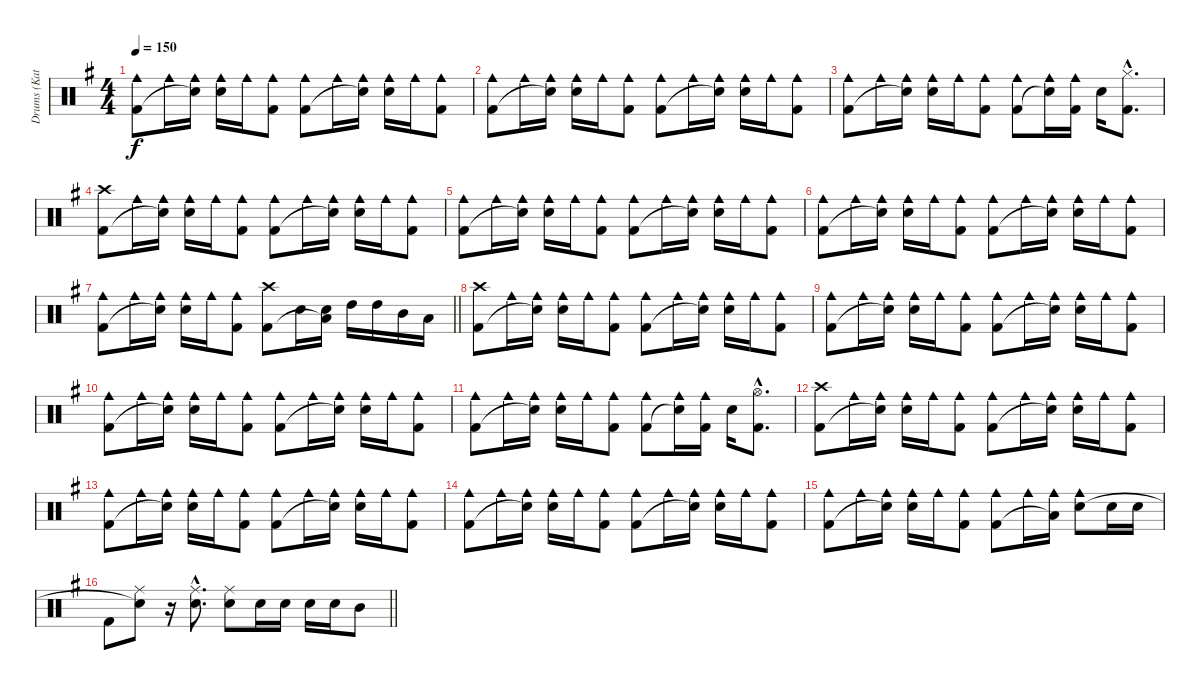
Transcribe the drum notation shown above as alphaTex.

\track ("Drums (Katsuji)" "Drums (Kat") {instrument percussion}
\staff {score}
\articulation defaults
\ts (4 4)
\tempo 150
\clef neutral
\ks g
("Cowbell medium (hit)" "Kick (hit) 2").8{dy f} "Cowbell medium (hit)".16 ("Cowbell medium (hit)" "Snare (hit)"{t}).16 ("Cowbell medium (hit)" "Snare (hit) 2").16 "Cowbell medium (hit)".16 ("Cowbell medium (hit)" "Kick (hit) 2").8 ("Cowbell medium (hit)" "Kick (hit) 2").8 "Cowbell medium (hit)".16 ("Cowbell medium (hit)" "Snare (hit)"{t}).16 ("Cowbell medium (hit)" "Snare (hit) 2").16 "Cowbell medium (hit)".16 ("Cowbell medium (hit)" "Kick (hit) 2").8 |
("Cowbell medium (hit)" "Kick (hit) 2").8 "Cowbell medium (hit)".16 ("Cowbell medium (hit)" "Snare (hit)"{t}).16 ("Cowbell medium (hit)" "Snare (hit) 2").16 "Cowbell medium (hit)".16 ("Cowbell medium (hit)" "Kick (hit) 2").8 ("Cowbell medium (hit)" "Kick (hit) 2").8 "Cowbell medium (hit)".16 ("Cowbell medium (hit)" "Snare (hit)"{t}).16 ("Cowbell medium (hit)" "Snare (hit) 2").16 "Cowbell medium (hit)".16 ("Cowbell medium (hit)" "Kick (hit) 2").8 |
("Cowbell medium (hit)" "Kick (hit) 2").8 "Cowbell medium (hit)".16 ("Cowbell medium (hit)" "Snare (hit)"{t}).16 ("Cowbell medium (hit)" "Snare (hit) 2").16 "Cowbell medium (hit)".16 ("Cowbell medium (hit)" "Kick (hit) 2").8 ("Cowbell medium (hit)" "Kick (hit) 2").8 ("Cowbell medium (hit)" "Snare (hit)"{t}).16 ("Cowbell medium (hit)" "Kick (hit) 2").16 "Snare (hit) 2".16 ("Hi-Hat (closed)"{hac} "Kick (hit) 2"{hac}).8{d} |
("Crash high (hit)" "Kick (hit) 2").8 "Cowbell medium (hit)".16 ("Cowbell medium (hit)" "Snare (hit)"{t}).16 ("Cowbell medium (hit)" "Snare (hit) 2").16 "Cowbell medium (hit)".16 ("Cowbell medium (hit)" "Kick (hit) 2").8 ("Cowbell medium (hit)" "Kick (hit) 2").8 "Cowbell medium (hit)".16 ("Cowbell medium (hit)" "Snare (hit)"{t}).16 ("Cowbell medium (hit)" "Snare (hit) 2").16 "Cowbell medium (hit)".16 ("Cowbell medium (hit)" "Kick (hit) 2").8 |
("Cowbell medium (hit)" "Kick (hit) 2").8 "Cowbell medium (hit)".16 ("Cowbell medium (hit)" "Snare (hit)"{t}).16 ("Cowbell medium (hit)" "Snare (hit) 2").16 "Cowbell medium (hit)".16 ("Cowbell medium (hit)" "Kick (hit) 2").8 ("Cowbell medium (hit)" "Kick (hit) 2").8 "Cowbell medium (hit)".16 ("Cowbell medium (hit)" "Snare (hit)"{t}).16 ("Cowbell medium (hit)" "Snare (hit) 2").16 "Cowbell medium (hit)".16 ("Cowbell medium (hit)" "Kick (hit) 2").8 |
("Cowbell medium (hit)" "Kick (hit) 2").8 "Cowbell medium (hit)".16 ("Cowbell medium (hit)" "Snare (hit)"{t}).16 ("Cowbell medium (hit)" "Snare (hit) 2").16 "Cowbell medium (hit)".16 ("Cowbell medium (hit)" "Kick (hit) 2").8 ("Cowbell medium (hit)" "Kick (hit) 2").8 "Cowbell medium (hit)".16 ("Cowbell medium (hit)" "Snare (hit)"{t}).16 ("Cowbell medium (hit)" "Snare (hit) 2").16 "Cowbell medium (hit)".16 ("Cowbell medium (hit)" "Kick (hit) 2").8 |
\barLineRight lightlight
("Cowbell medium (hit)" "Kick (hit) 2").8 "Cowbell medium (hit)".16 ("Cowbell medium (hit)" "Snare (hit)"{t}).16 ("Cowbell medium (hit)" "Snare (hit) 2").16 "Cowbell medium (hit)".16 ("Cowbell medium (hit)" "Kick (hit) 2").8 ("Crash high (hit)" "Kick (hit) 2").8 "Snare (hit) 2".16 ("Snare (hit) 2" "Low Floor Tom (hit)"{t}).16 "High Tom (hit)".16 "High Tom (hit)".16 "Mid Tom (hit)".16 "Low Tom (hit)".16 |
("Crash high (hit)" "Kick (hit) 2").8 "Cowbell medium (hit)".16 ("Cowbell medium (hit)" "Snare (hit)"{t}).16 ("Cowbell medium (hit)" "Snare (hit) 2").16 "Cowbell medium (hit)".16 ("Cowbell medium (hit)" "Kick (hit) 2").8 ("Cowbell medium (hit)" "Kick (hit) 2").8 "Cowbell medium (hit)".16 ("Cowbell medium (hit)" "Snare (hit)"{t}).16 ("Cowbell medium (hit)" "Snare (hit) 2").16 "Cowbell medium (hit)".16 ("Cowbell medium (hit)" "Kick (hit) 2").8 |
("Cowbell medium (hit)" "Kick (hit) 2").8 "Cowbell medium (hit)".16 ("Cowbell medium (hit)" "Snare (hit)"{t}).16 ("Cowbell medium (hit)" "Snare (hit) 2").16 "Cowbell medium (hit)".16 ("Cowbell medium (hit)" "Kick (hit) 2").8 ("Cowbell medium (hit)" "Kick (hit) 2").8 "Cowbell medium (hit)".16 ("Cowbell medium (hit)" "Snare (hit)"{t}).16 ("Cowbell medium (hit)" "Snare (hit) 2").16 "Cowbell medium (hit)".16 ("Cowbell medium (hit)" "Kick (hit) 2").8 |
("Cowbell medium (hit)" "Kick (hit) 2").8 "Cowbell medium (hit)".16 ("Cowbell medium (hit)" "Snare (hit)"{t}).16 ("Cowbell medium (hit)" "Snare (hit) 2").16 "Cowbell medium (hit)".16 ("Cowbell medium (hit)" "Kick (hit) 2").8 ("Cowbell medium (hit)" "Kick (hit) 2").8 "Cowbell medium (hit)".16 ("Cowbell medium (hit)" "Snare (hit)"{t}).16 ("Cowbell medium (hit)" "Snare (hit) 2").16 "Cowbell medium (hit)".16 ("Cowbell medium (hit)" "Kick (hit) 2").8 |
("Cowbell medium (hit)" "Kick (hit) 2").8 "Cowbell medium (hit)".16 ("Cowbell medium (hit)" "Snare (hit)"{t}).16 ("Cowbell medium (hit)" "Snare (hit) 2").16 "Cowbell medium (hit)".16 ("Cowbell medium (hit)" "Kick (hit) 2").8 ("Cowbell medium (hit)" "Kick (hit) 2").8 ("Cowbell medium (hit)" "Snare (hit)"{t}).16 ("Cowbell medium (hit)" "Kick (hit) 2").16 "Snare (hit) 2".16 ("Hi-Hat (open)"{hac} "Kick (hit) 2"{hac}).8{d} |
("Crash high (hit)" "Kick (hit) 2").8 "Cowbell medium (hit)".16 ("Cowbell medium (hit)" "Snare (hit)"{t}).16 ("Cowbell medium (hit)" "Snare (hit) 2").16 "Cowbell medium (hit)".16 ("Cowbell medium (hit)" "Kick (hit) 2").8 ("Cowbell medium (hit)" "Kick (hit) 2").8 "Cowbell medium (hit)".16 ("Cowbell medium (hit)" "Snare (hit)"{t}).16 ("Cowbell medium (hit)" "Snare (hit) 2").16 "Cowbell medium (hit)".16 ("Cowbell medium (hit)" "Kick (hit) 2").8 |
("Cowbell medium (hit)" "Kick (hit) 2").8 "Cowbell medium (hit)".16 ("Cowbell medium (hit)" "Snare (hit)"{t}).16 ("Cowbell medium (hit)" "Snare (hit) 2").16 "Cowbell medium (hit)".16 ("Cowbell medium (hit)" "Kick (hit) 2").8 ("Cowbell medium (hit)" "Kick (hit) 2").8 "Cowbell medium (hit)".16 ("Cowbell medium (hit)" "Snare (hit)"{t}).16 ("Cowbell medium (hit)" "Snare (hit) 2").16 "Cowbell medium (hit)".16 ("Cowbell medium (hit)" "Kick (hit) 2").8 |
("Cowbell medium (hit)" "Kick (hit) 2").8 "Cowbell medium (hit)".16 ("Cowbell medium (hit)" "Snare (hit)"{t}).16 ("Cowbell medium (hit)" "Snare (hit) 2").16 "Cowbell medium (hit)".16 ("Cowbell medium (hit)" "Kick (hit) 2").8 ("Cowbell medium (hit)" "Kick (hit) 2").8 "Cowbell medium (hit)".16 ("Cowbell medium (hit)" "Snare (hit)"{t}).16 ("Cowbell medium (hit)" "Snare (hit) 2").16 "Cowbell medium (hit)".16 ("Cowbell medium (hit)" "Kick (hit) 2").8 |
("Cowbell medium (hit)" "Kick (hit) 2").8 "Cowbell medium (hit)".16 ("Cowbell medium (hit)" "Snare (hit)"{t}).16 ("Cowbell medium (hit)" "Snare (hit) 2").16 "Cowbell medium (hit)".16 ("Cowbell medium (hit)" "Kick (hit) 2").8 ("Cowbell medium (hit)" "Kick (hit) 2").8 "Cowbell medium (hit)".16 ("Cowbell medium (hit)" "Low Floor Tom (hit)"{t}).16 ("Cowbell medium (hit)" "Snare (hit) 2").8 "Snare (hit) 2".16 "Snare (hit) 2".16 |
\barLineRight lightlight "Kick (hit) 2".8
("Ride (middle)" "Snare (hit)"{t}).8 r.16 ("Ride (middle)"{hac} "Snare (hit) 2"{hac}).8{d} ("Ride (middle)" "Snare (hit) 2").8 "Snare (hit) 2".16 "Snare (hit) 2".16 "Snare (hit) 2".16 "Snare (hit) 2".16 "Mid Tom (hit)".8
